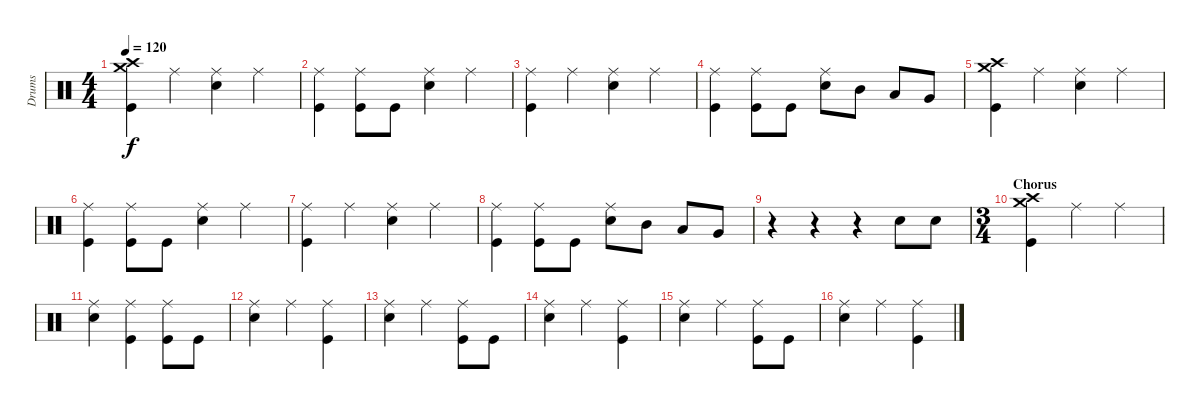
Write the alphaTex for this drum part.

\track ("Drums" "Drums") {instrument percussion}
\staff {score}
\articulation defaults
\ts (4 4)
\tempo 120
\clef neutral
\ks c
("Crash medium (hit)" "Crash high (hit)" "Kick (hit)").4{dy f} "Ride (middle)".4 ("Ride (middle)" "Snare (hit) 2").4 "Ride (middle)".4 |
("Ride (middle)" "Kick (hit)").4 ("Ride (middle)" "Kick (hit)").8 "Kick (hit)".8 ("Ride (middle)" "Snare (hit) 2").4 "Ride (middle)".4 |
("Ride (middle)" "Kick (hit)").4 "Ride (middle)".4 ("Ride (middle)" "Snare (hit) 2").4 "Ride (middle)".4 |
("Ride (middle)" "Kick (hit)").4 ("Ride (middle)" "Kick (hit)").8 "Kick (hit)".8 ("Ride (middle)" "Snare (hit) 2").8 "Mid Tom (hit)".8 "Low Tom (hit)".8 "Very Low Tom (hit)".8 |
("Crash medium (hit)" "Crash high (hit)" "Kick (hit)").4 "Ride (middle)".4 ("Ride (middle)" "Snare (hit) 2").4 "Ride (middle)".4 |
("Ride (middle)" "Kick (hit)").4 ("Ride (middle)" "Kick (hit)").8 "Kick (hit)".8 ("Ride (middle)" "Snare (hit) 2").4 "Ride (middle)".4 |
("Ride (middle)" "Kick (hit)").4 "Ride (middle)".4 ("Ride (middle)" "Snare (hit) 2").4 "Ride (middle)".4 |
("Ride (middle)" "Kick (hit)").4 ("Ride (middle)" "Kick (hit)").8 "Kick (hit)".8 ("Ride (middle)" "Snare (hit) 2").8 "Mid Tom (hit)".8 "Low Tom (hit)".8 "Very Low Tom (hit)".8 |
r.4 r.4 r.4 "Snare (hit) 2".8 "Snare (hit) 2".8 |
\ts (3 4)
\section ("" "Chorus")
("Crash medium (hit)" "Crash high (hit)" "Kick (hit)").4 "Ride (middle)".4 "Ride (middle)".4 |
("Ride (middle)" "Snare (hit) 2").4 ("Ride (middle)" "Kick (hit)").4 ("Ride (middle)" "Kick (hit)").8 "Kick (hit)".8 |
("Ride (middle)" "Snare (hit) 2").4 "Ride (middle)".4 ("Ride (middle)" "Kick (hit)").4 |
("Ride (middle)" "Snare (hit) 2").4 "Ride (middle)".4 ("Ride (middle)" "Kick (hit)").8 "Kick (hit)".8 |
("Ride (middle)" "Snare (hit) 2").4 "Ride (middle)".4 ("Ride (middle)" "Kick (hit)").4 |
("Ride (middle)" "Snare (hit) 2").4 "Ride (middle)".4 ("Ride (middle)" "Kick (hit)").8 "Kick (hit)".8 |
("Ride (middle)" "Snare (hit) 2").4 "Ride (middle)".4 ("Ride (middle)" "Kick (hit)").4
